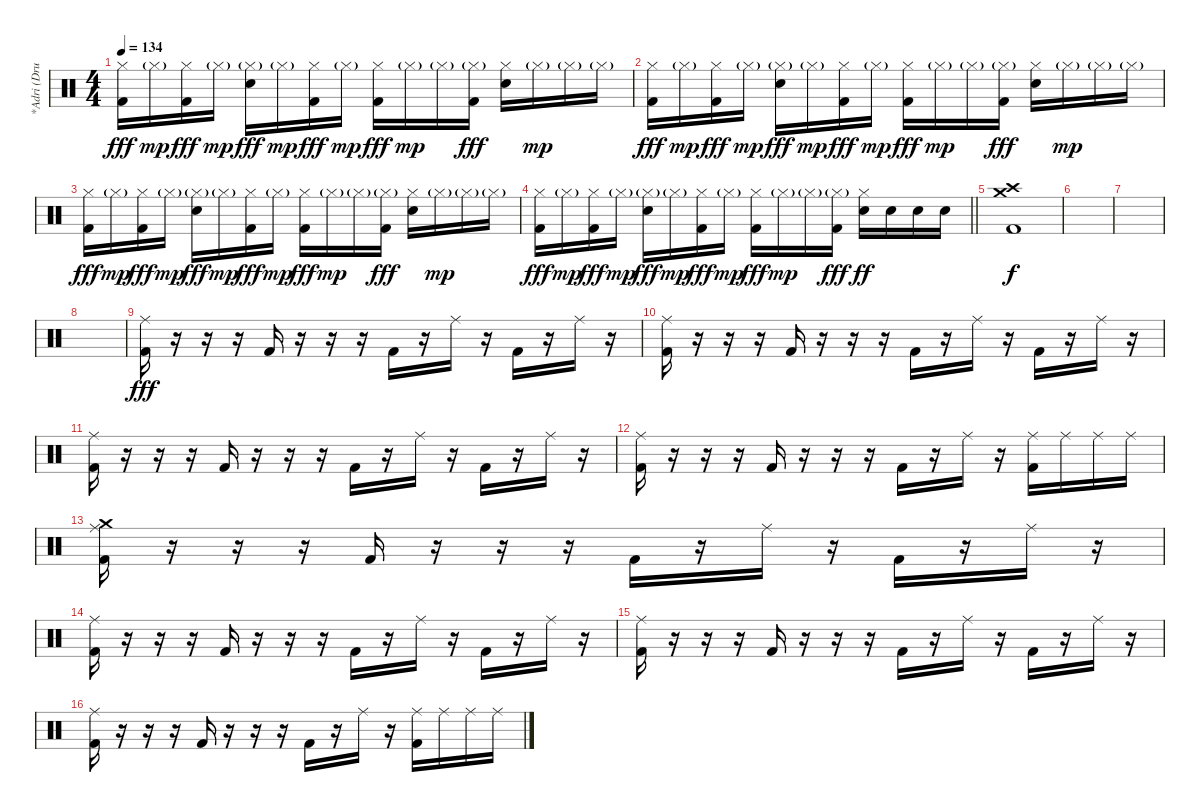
\track ("*Adri (Drum)" "*Adri (Dru") {instrument percussion}
\staff {score}
\articulation defaults
\ts (4 4)
\tempo 134
\clef neutral
\ks c
("Hi-Hat (closed)" "Kick (hit) 2").16{dy fff} "Hi-Hat (closed)"{g}.16{dy mp} ("Hi-Hat (closed)" "Kick (hit) 2").16{dy fff} "Hi-Hat (closed)"{g}.16{dy mp} ("Hi-Hat (closed)"{g} "Snare (hit) 2").16{dy fff} "Hi-Hat (closed)"{g}.16{dy mp} ("Hi-Hat (closed)" "Kick (hit) 2").16{dy fff} "Hi-Hat (closed)"{g}.16{dy mp} ("Hi-Hat (closed)" "Kick (hit) 2").16{dy fff} "Hi-Hat (closed)"{g}.16{dy mp} "Hi-Hat (closed)"{g}.16 ("Hi-Hat (closed)"{g} "Kick (hit) 2").16{dy fff} ("Hi-Hat (closed)" "Snare (hit) 2").16 "Hi-Hat (closed)"{g}.16{dy mp} "Hi-Hat (closed)"{g}.16 "Hi-Hat (closed)"{g}.16 |
("Hi-Hat (closed)" "Kick (hit) 2").16{dy fff} "Hi-Hat (closed)"{g}.16{dy mp} ("Hi-Hat (closed)" "Kick (hit) 2").16{dy fff} "Hi-Hat (closed)"{g}.16{dy mp} ("Hi-Hat (closed)"{g} "Snare (hit) 2").16{dy fff} "Hi-Hat (closed)"{g}.16{dy mp} ("Hi-Hat (closed)" "Kick (hit) 2").16{dy fff} "Hi-Hat (closed)"{g}.16{dy mp} ("Hi-Hat (closed)" "Kick (hit) 2").16{dy fff} "Hi-Hat (closed)"{g}.16{dy mp} "Hi-Hat (closed)"{g}.16 ("Hi-Hat (closed)"{g} "Kick (hit) 2").16{dy fff} ("Hi-Hat (closed)" "Snare (hit) 2").16 "Hi-Hat (closed)"{g}.16{dy mp} "Hi-Hat (closed)"{g}.16 "Hi-Hat (closed)"{g}.16 |
("Hi-Hat (closed)" "Kick (hit) 2").16{dy fff} "Hi-Hat (closed)"{g}.16{dy mp} ("Hi-Hat (closed)" "Kick (hit) 2").16{dy fff} "Hi-Hat (closed)"{g}.16{dy mp} ("Hi-Hat (closed)"{g} "Snare (hit) 2").16{dy fff} "Hi-Hat (closed)"{g}.16{dy mp} ("Hi-Hat (closed)" "Kick (hit) 2").16{dy fff} "Hi-Hat (closed)"{g}.16{dy mp} ("Hi-Hat (closed)" "Kick (hit) 2").16{dy fff} "Hi-Hat (closed)"{g}.16{dy mp} "Hi-Hat (closed)"{g}.16 ("Hi-Hat (closed)"{g} "Kick (hit) 2").16{dy fff} ("Hi-Hat (closed)" "Snare (hit) 2").16 "Hi-Hat (closed)"{g}.16{dy mp} "Hi-Hat (closed)"{g}.16 "Hi-Hat (closed)"{g}.16 |
\barLineRight lightlight
("Hi-Hat (closed)" "Kick (hit) 2").16{dy fff} "Hi-Hat (closed)"{g}.16{dy mp} ("Hi-Hat (closed)" "Kick (hit) 2").16{dy fff} "Hi-Hat (closed)"{g}.16{dy mp} ("Hi-Hat (closed)"{g} "Snare (hit) 2").16{dy fff} "Hi-Hat (closed)"{g}.16{dy mp} ("Hi-Hat (closed)" "Kick (hit) 2").16{dy fff} "Hi-Hat (closed)"{g}.16{dy mp} ("Hi-Hat (closed)" "Kick (hit) 2").16{dy fff} "Hi-Hat (closed)"{g}.16{dy mp} "Hi-Hat (closed)"{g}.16 ("Hi-Hat (closed)"{g} "Kick (hit) 2").16{dy fff} ("Hi-Hat (closed)" "Snare (hit) 2").16{dy ff} "Snare (hit) 2".16 "Snare (hit) 2".16 "Snare (hit) 2".16 |
\section ("" "")
("Crash high (hit)" "Crash medium (hit)" "Kick (hit) 2").1{dy f} |
|
|
|
("Ride (middle)" "Kick (hit) 2").16{dy fff} r.16 r.16 r.16 "Kick (hit) 2".16 r.16 r.16 r.16 "Kick (hit) 2".16 r.16 "Ride (middle)".16 r.16 "Kick (hit) 2".16 r.16 "Ride (middle)".16 r.16 |
("Ride (middle)" "Kick (hit) 2").16 r.16 r.16 r.16 "Kick (hit) 2".16 r.16 r.16 r.16 "Kick (hit) 2".16 r.16 "Ride (middle)".16 r.16 "Kick (hit) 2".16 r.16 "Ride (middle)".16 r.16 |
("Ride (middle)" "Kick (hit) 2").16 r.16 r.16 r.16 "Kick (hit) 2".16 r.16 r.16 r.16 "Kick (hit) 2".16 r.16 "Ride (middle)".16 r.16 "Kick (hit) 2".16 r.16 "Ride (middle)".16 r.16 |
("Ride (middle)" "Kick (hit) 2").16 r.16 r.16 r.16 "Kick (hit) 2".16 r.16 r.16 r.16 "Kick (hit) 2".16 r.16 "Ride (middle)".16 r.16 ("Ride (middle)" "Kick (hit) 2").16 "Ride (middle)".16 "Ride (middle)".16 "Ride (middle)".16 |
("Crash medium (hit)" "Ride (middle)" "Kick (hit) 2").16 r.16 r.16 r.16 "Kick (hit) 2".16 r.16 r.16 r.16 "Kick (hit) 2".16 r.16 "Ride (middle)".16 r.16 "Kick (hit) 2".16 r.16 "Ride (middle)".16 r.16 |
("Ride (middle)" "Kick (hit) 2").16 r.16 r.16 r.16 "Kick (hit) 2".16 r.16 r.16 r.16 "Kick (hit) 2".16 r.16 "Ride (middle)".16 r.16 "Kick (hit) 2".16 r.16 "Ride (middle)".16 r.16 |
("Ride (middle)" "Kick (hit) 2").16 r.16 r.16 r.16 "Kick (hit) 2".16 r.16 r.16 r.16 "Kick (hit) 2".16 r.16 "Ride (middle)".16 r.16 "Kick (hit) 2".16 r.16 "Ride (middle)".16 r.16 |
("Ride (middle)" "Kick (hit) 2").16 r.16 r.16 r.16 "Kick (hit) 2".16 r.16 r.16 r.16 "Kick (hit) 2".16 r.16 "Ride (middle)".16 r.16 ("Ride (middle)" "Kick (hit) 2").16 "Ride (middle)".16 "Ride (middle)".16 "Ride (middle)".16
